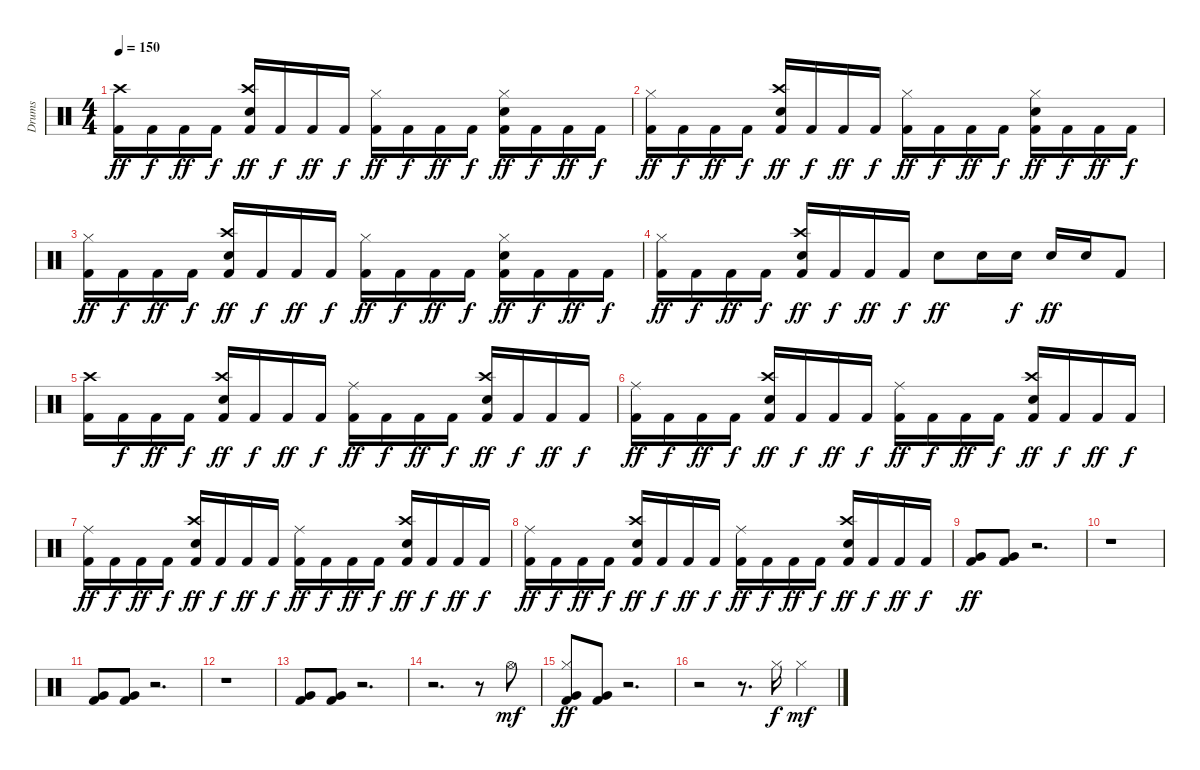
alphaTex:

\track ("Drums" "Drums") {instrument percussion}
\staff {score}
\articulation defaults
\ts (4 4)
\tempo 150
\clef neutral
\ks c
("Kick (hit) 2" "Crash high (hit)").16{dy ff} "Kick (hit) 2".16{dy f} "Kick (hit) 2".16{dy ff} "Kick (hit) 2".16{dy f} ("Kick (hit) 2" "Crash high (hit)" "Snare (hit) 2").16{dy ff} "Kick (hit) 2".16{dy f} "Kick (hit) 2".16{dy ff} "Kick (hit) 2".16{dy f} ("Hi-Hat (closed)" "Kick (hit) 2").16{dy ff} "Kick (hit) 2".16{dy f} "Kick (hit) 2".16{dy ff} "Kick (hit) 2".16{dy f} ("Snare (hit) 2" "Hi-Hat (closed)" "Kick (hit) 2").16{dy ff} "Kick (hit) 2".16{dy f} "Kick (hit) 2".16{dy ff} "Kick (hit) 2".16{dy f} |
("Hi-Hat (closed)" "Kick (hit) 2").16{dy ff} "Kick (hit) 2".16{dy f} "Kick (hit) 2".16{dy ff} "Kick (hit) 2".16{dy f} ("Kick (hit) 2" "Crash high (hit)" "Snare (hit) 2").16{dy ff} "Kick (hit) 2".16{dy f} "Kick (hit) 2".16{dy ff} "Kick (hit) 2".16{dy f} ("Hi-Hat (closed)" "Kick (hit) 2").16{dy ff} "Kick (hit) 2".16{dy f} "Kick (hit) 2".16{dy ff} "Kick (hit) 2".16{dy f} ("Snare (hit) 2" "Hi-Hat (closed)" "Kick (hit) 2").16{dy ff} "Kick (hit) 2".16{dy f} "Kick (hit) 2".16{dy ff} "Kick (hit) 2".16{dy f} |
("Hi-Hat (closed)" "Kick (hit) 2").16{dy ff} "Kick (hit) 2".16{dy f} "Kick (hit) 2".16{dy ff} "Kick (hit) 2".16{dy f} ("Kick (hit) 2" "Crash high (hit)" "Snare (hit) 2").16{dy ff} "Kick (hit) 2".16{dy f} "Kick (hit) 2".16{dy ff} "Kick (hit) 2".16{dy f} ("Hi-Hat (closed)" "Kick (hit) 2").16{dy ff} "Kick (hit) 2".16{dy f} "Kick (hit) 2".16{dy ff} "Kick (hit) 2".16{dy f} ("Snare (hit) 2" "Hi-Hat (closed)" "Kick (hit) 2").16{dy ff} "Kick (hit) 2".16{dy f} "Kick (hit) 2".16{dy ff} "Kick (hit) 2".16{dy f} |
("Hi-Hat (closed)" "Kick (hit) 2").16{dy ff} "Kick (hit) 2".16{dy f} "Kick (hit) 2".16{dy ff} "Kick (hit) 2".16{dy f} ("Kick (hit) 2" "Crash high (hit)" "Snare (hit) 2").16{dy ff} "Kick (hit) 2".16{dy f} "Kick (hit) 2".16{dy ff} "Kick (hit) 2".16{dy f} "Snare (hit) 2".8{dy ff} "Snare (hit) 2".16 "Snare (hit) 2".16{dy f} "Snare (hit) 2".16{dy ff} "Snare (hit) 2".16 "Kick (hit) 2".8 |
("Kick (hit) 2" "Crash high (hit)").16 "Kick (hit) 2".16{dy f} "Kick (hit) 2".16{dy ff} "Kick (hit) 2".16{dy f} ("Kick (hit) 2" "Crash high (hit)" "Snare (hit) 2").16{dy ff} "Kick (hit) 2".16{dy f} "Kick (hit) 2".16{dy ff} "Kick (hit) 2".16{dy f} ("Ride (middle)" "Kick (hit) 2").16{dy ff} "Kick (hit) 2".16{dy f} "Kick (hit) 2".16{dy ff} "Kick (hit) 2".16{dy f} ("Kick (hit) 2" "Crash high (hit)" "Snare (hit) 2").16{dy ff} "Kick (hit) 2".16{dy f} "Kick (hit) 2".16{dy ff} "Kick (hit) 2".16{dy f} |
("Ride (middle)" "Kick (hit) 2").16{dy ff} "Kick (hit) 2".16{dy f} "Kick (hit) 2".16{dy ff} "Kick (hit) 2".16{dy f} ("Kick (hit) 2" "Crash high (hit)" "Snare (hit) 2").16{dy ff} "Kick (hit) 2".16{dy f} "Kick (hit) 2".16{dy ff} "Kick (hit) 2".16{dy f} ("Ride (middle)" "Kick (hit) 2").16{dy ff} "Kick (hit) 2".16{dy f} "Kick (hit) 2".16{dy ff} "Kick (hit) 2".16{dy f} ("Kick (hit) 2" "Crash high (hit)" "Snare (hit) 2").16{dy ff} "Kick (hit) 2".16{dy f} "Kick (hit) 2".16{dy ff} "Kick (hit) 2".16{dy f} |
("Ride (middle)" "Kick (hit) 2").16{dy ff} "Kick (hit) 2".16{dy f} "Kick (hit) 2".16{dy ff} "Kick (hit) 2".16{dy f} ("Kick (hit) 2" "Crash high (hit)" "Snare (hit) 2").16{dy ff} "Kick (hit) 2".16{dy f} "Kick (hit) 2".16{dy ff} "Kick (hit) 2".16{dy f} ("Ride (middle)" "Kick (hit) 2").16{dy ff} "Kick (hit) 2".16{dy f} "Kick (hit) 2".16{dy ff} "Kick (hit) 2".16{dy f} ("Kick (hit) 2" "Crash high (hit)" "Snare (hit) 2").16{dy ff} "Kick (hit) 2".16{dy f} "Kick (hit) 2".16{dy ff} "Kick (hit) 2".16{dy f} |
("Ride (middle)" "Kick (hit) 2").16{dy ff} "Kick (hit) 2".16{dy f} "Kick (hit) 2".16{dy ff} "Kick (hit) 2".16{dy f} ("Kick (hit) 2" "Crash high (hit)" "Snare (hit) 2").16{dy ff} "Kick (hit) 2".16{dy f} "Kick (hit) 2".16{dy ff} "Kick (hit) 2".16{dy f} ("Ride (middle)" "Kick (hit) 2").16{dy ff} "Kick (hit) 2".16{dy f} "Kick (hit) 2".16{dy ff} "Kick (hit) 2".16{dy f} ("Kick (hit) 2" "Crash high (hit)" "Snare (hit) 2").16{dy ff} "Kick (hit) 2".16{dy f} "Kick (hit) 2".16{dy ff} "Kick (hit) 2".16{dy f} |
("Very Low Tom (hit)" "Kick (hit) 2").8{dy ff} ("Very Low Tom (hit)" "Kick (hit) 2").8 r.2{d} |
r.1 |
("Very Low Tom (hit)" "Kick (hit) 2").8 ("Very Low Tom (hit)" "Kick (hit) 2").8 r.2{d} |
r.1 |
("Very Low Tom (hit)" "Kick (hit) 2").8 ("Very Low Tom (hit)" "Kick (hit) 2").8 r.2{d} |
r.2{d} r.8 "Hi-Hat (open)".8{dy mf} |
("Kick (hit) 2" "Hi-Hat (closed)" "Very Low Tom (hit)").8{dy ff} ("Very Low Tom (hit)" "Kick (hit) 2").8 r.2{d} |
r.2 r.8{d} "Hi-Hat (closed)".16{dy f} "Hi-Hat (closed)".4{dy mf}
